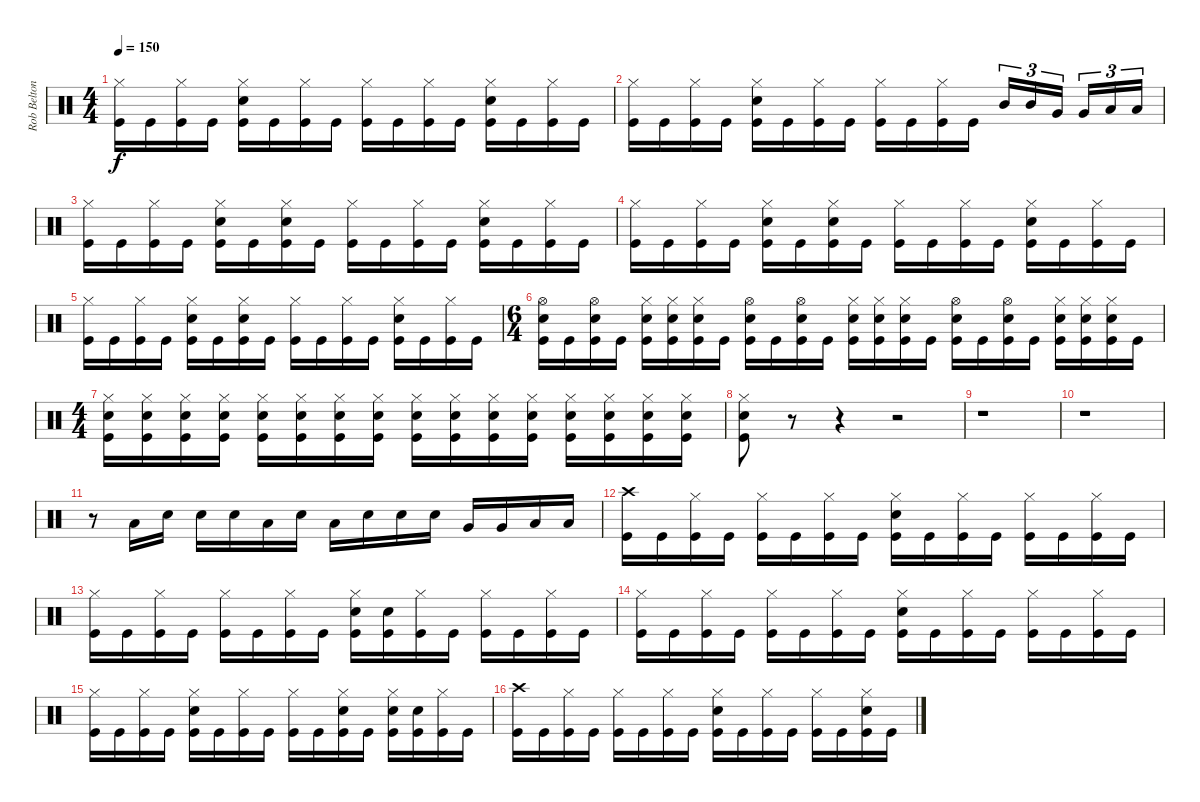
\track ("Rob Belton" "Rob Belton") {instrument percussion}
\staff {score}
\articulation defaults
\ts (4 4)
\tempo 150
\clef neutral
\ks c
("Hi-Hat (closed)" "Kick (hit)").16{dy f} "Kick (hit)".16 ("Hi-Hat (closed)" "Kick (hit)").16 "Kick (hit)".16 ("Hi-Hat (closed)" "Snare (hit) 2" "Kick (hit)").16 "Kick (hit)".16 ("Hi-Hat (closed)" "Kick (hit)").16 "Kick (hit)".16 ("Hi-Hat (closed)" "Kick (hit)").16 "Kick (hit)".16 ("Hi-Hat (closed)" "Kick (hit)").16 "Kick (hit)".16 ("Hi-Hat (closed)" "Snare (hit) 2" "Kick (hit)").16 "Kick (hit)".16 ("Hi-Hat (closed)" "Kick (hit)").16 "Kick (hit)".16 |
("Hi-Hat (closed)" "Kick (hit)").16 "Kick (hit)".16 ("Hi-Hat (closed)" "Kick (hit)").16 "Kick (hit)".16 ("Hi-Hat (closed)" "Snare (hit) 2" "Kick (hit)").16 "Kick (hit)".16 ("Hi-Hat (closed)" "Kick (hit)").16 "Kick (hit)".16 ("Hi-Hat (closed)" "Kick (hit)").16 "Kick (hit)".16 ("Hi-Hat (closed)" "Kick (hit)").16 "Kick (hit)".16 "Mid Tom (hit)".16{tu (3 2)} "Mid Tom (hit)".16{tu (3 2)} "Very Low Tom (hit)".16{tu (3 2) beam splitsecondary} "Very Low Tom (hit)".16{tu (3 2)} "Low Floor Tom (hit)".16{tu (3 2)} "Low Floor Tom (hit)".16{tu (3 2)} |
("Hi-Hat (closed)" "Kick (hit)").16 "Kick (hit)".16 ("Hi-Hat (closed)" "Kick (hit)").16 "Kick (hit)".16 ("Hi-Hat (closed)" "Snare (hit) 2" "Kick (hit)").16 "Kick (hit)".16 ("Hi-Hat (closed)" "Snare (hit) 2" "Kick (hit)").16 "Kick (hit)".16 ("Hi-Hat (closed)" "Kick (hit)").16 "Kick (hit)".16 ("Hi-Hat (closed)" "Kick (hit)").16 "Kick (hit)".16 ("Hi-Hat (closed)" "Snare (hit) 2" "Kick (hit)").16 "Kick (hit)".16 ("Hi-Hat (closed)" "Kick (hit)").16 "Kick (hit)".16 |
("Hi-Hat (closed)" "Kick (hit)").16 "Kick (hit)".16 ("Hi-Hat (closed)" "Kick (hit)").16 "Kick (hit)".16 ("Hi-Hat (closed)" "Snare (hit) 2" "Kick (hit)").16 "Kick (hit)".16 ("Hi-Hat (closed)" "Snare (hit) 2" "Kick (hit)").16 "Kick (hit)".16 ("Hi-Hat (closed)" "Kick (hit)").16 "Kick (hit)".16 ("Hi-Hat (closed)" "Kick (hit)").16 "Kick (hit)".16 ("Hi-Hat (closed)" "Snare (hit) 2" "Kick (hit)").16 "Kick (hit)".16 ("Hi-Hat (closed)" "Kick (hit)").16 "Kick (hit)".16 |
("Hi-Hat (closed)" "Kick (hit)").16 "Kick (hit)".16 ("Hi-Hat (closed)" "Kick (hit)").16 "Kick (hit)".16 ("Hi-Hat (closed)" "Snare (hit) 2" "Kick (hit)").16 "Kick (hit)".16 ("Hi-Hat (closed)" "Snare (hit) 2" "Kick (hit)").16 "Kick (hit)".16 ("Hi-Hat (closed)" "Kick (hit)").16 "Kick (hit)".16 ("Hi-Hat (closed)" "Kick (hit)").16 "Kick (hit)".16 ("Hi-Hat (closed)" "Snare (hit) 2" "Kick (hit)").16 "Kick (hit)".16 ("Hi-Hat (closed)" "Kick (hit)").16 "Kick (hit)".16 |
\ts (6 4)
("Hi-Hat (open)" "Snare (hit) 2" "Kick (hit)").16 "Kick (hit)".16 ("Hi-Hat (open)" "Snare (hit) 2" "Kick (hit)").16 "Kick (hit)".16 ("Hi-Hat (closed)" "Snare (hit) 2" "Kick (hit)").16 ("Hi-Hat (closed)" "Snare (hit) 2" "Kick (hit)").16 ("Hi-Hat (closed)" "Snare (hit) 2" "Kick (hit)").16 "Kick (hit)".16 ("Hi-Hat (open)" "Snare (hit) 2" "Kick (hit)").16 "Kick (hit)".16 ("Hi-Hat (open)" "Snare (hit) 2" "Kick (hit)").16 "Kick (hit)".16 ("Hi-Hat (closed)" "Snare (hit) 2" "Kick (hit)").16 ("Hi-Hat (closed)" "Snare (hit) 2" "Kick (hit)").16 ("Hi-Hat (closed)" "Snare (hit) 2" "Kick (hit)").16 "Kick (hit)".16 ("Hi-Hat (open)" "Snare (hit) 2" "Kick (hit)").16 "Kick (hit)".16 ("Hi-Hat (open)" "Snare (hit) 2" "Kick (hit)").16 "Kick (hit)".16 ("Hi-Hat (closed)" "Snare (hit) 2" "Kick (hit)").16 ("Hi-Hat (closed)" "Snare (hit) 2" "Kick (hit)").16 ("Hi-Hat (closed)" "Snare (hit) 2" "Kick (hit)").16 "Kick (hit)".16 |
\ts (4 4)
("Hi-Hat (closed)" "Snare (hit) 2" "Kick (hit)").16 ("Hi-Hat (closed)" "Snare (hit) 2" "Kick (hit)").16 ("Hi-Hat (closed)" "Snare (hit) 2" "Kick (hit)").16 ("Hi-Hat (closed)" "Snare (hit) 2" "Kick (hit)").16 ("Hi-Hat (closed)" "Snare (hit) 2" "Kick (hit)").16 ("Hi-Hat (closed)" "Snare (hit) 2" "Kick (hit)").16 ("Hi-Hat (closed)" "Snare (hit) 2" "Kick (hit)").16 ("Hi-Hat (closed)" "Snare (hit) 2" "Kick (hit)").16 ("Hi-Hat (closed)" "Snare (hit) 2" "Kick (hit)").16 ("Hi-Hat (closed)" "Snare (hit) 2" "Kick (hit)").16 ("Hi-Hat (closed)" "Snare (hit) 2" "Kick (hit)").16 ("Hi-Hat (closed)" "Snare (hit) 2" "Kick (hit)").16 ("Hi-Hat (closed)" "Snare (hit) 2" "Kick (hit)").16 ("Hi-Hat (closed)" "Snare (hit) 2" "Kick (hit)").16 ("Hi-Hat (closed)" "Snare (hit) 2" "Kick (hit)").16 ("Hi-Hat (closed)" "Snare (hit) 2" "Kick (hit)").16 |
("Hi-Hat (closed)" "Snare (hit) 2" "Kick (hit)").8 r.8 r.4 r.2 |
r.1 |
r.1 |
r.8 "Low Tom (hit)".16 "Snare (hit) 2".16 "Snare (hit) 2".16 "Snare (hit) 2".16 "Low Tom (hit)".16 "Snare (hit) 2".16 "Low Tom (hit)".16 "Snare (hit) 2".16 "Snare (hit) 2".16 "Snare (hit) 2".16 "Very Low Tom (hit)".16 "Very Low Tom (hit)".16 "Low Floor Tom (hit)".16 "Low Floor Tom (hit)".16 |
("Crash high (hit)" "Kick (hit)").16 "Kick (hit)".16 ("Hi-Hat (closed)" "Kick (hit)").16 "Kick (hit)".16 ("Hi-Hat (closed)" "Kick (hit)").16 "Kick (hit)".16 ("Hi-Hat (closed)" "Kick (hit)").16 "Kick (hit)".16 ("Hi-Hat (closed)" "Snare (hit) 2" "Kick (hit)").16 "Kick (hit)".16 ("Hi-Hat (closed)" "Kick (hit)").16 "Kick (hit)".16 ("Hi-Hat (closed)" "Kick (hit)").16 "Kick (hit)".16 ("Hi-Hat (closed)" "Kick (hit)").16 "Kick (hit)".16 |
("Hi-Hat (closed)" "Kick (hit)").16 "Kick (hit)".16 ("Hi-Hat (closed)" "Kick (hit)").16 "Kick (hit)".16 ("Hi-Hat (closed)" "Kick (hit)").16 "Kick (hit)".16 ("Hi-Hat (closed)" "Kick (hit)").16 "Kick (hit)".16 ("Hi-Hat (closed)" "Snare (hit) 2" "Kick (hit)").16 ("Snare (hit) 2" "Kick (hit)").16 ("Hi-Hat (closed)" "Kick (hit)").16 "Kick (hit)".16 ("Hi-Hat (closed)" "Kick (hit)").16 "Kick (hit)".16 ("Hi-Hat (closed)" "Kick (hit)").16 "Kick (hit)".16 |
("Hi-Hat (closed)" "Kick (hit)").16 "Kick (hit)".16 ("Hi-Hat (closed)" "Kick (hit)").16 "Kick (hit)".16 ("Hi-Hat (closed)" "Kick (hit)").16 "Kick (hit)".16 ("Hi-Hat (closed)" "Kick (hit)").16 "Kick (hit)".16 ("Hi-Hat (closed)" "Snare (hit) 2" "Kick (hit)").16 "Kick (hit)".16 ("Hi-Hat (closed)" "Kick (hit)").16 "Kick (hit)".16 ("Hi-Hat (closed)" "Kick (hit)").16 "Kick (hit)".16 ("Hi-Hat (closed)" "Kick (hit)").16 "Kick (hit)".16 |
("Hi-Hat (closed)" "Kick (hit)").16 "Kick (hit)".16 ("Hi-Hat (closed)" "Kick (hit)").16 "Kick (hit)".16 ("Hi-Hat (closed)" "Snare (hit) 2" "Kick (hit)").16 "Kick (hit)".16 ("Hi-Hat (closed)" "Kick (hit)").16 "Kick (hit)".16 ("Hi-Hat (closed)" "Kick (hit)").16 "Kick (hit)".16 ("Hi-Hat (closed)" "Snare (hit) 2" "Kick (hit)").16 "Kick (hit)".16 ("Hi-Hat (closed)" "Snare (hit) 2" "Kick (hit)").16 ("Snare (hit) 2" "Kick (hit)").16 ("Hi-Hat (closed)" "Kick (hit)").16 "Kick (hit)".16 |
("Crash high (hit)" "Kick (hit)").16 "Kick (hit)".16 ("Hi-Hat (closed)" "Kick (hit)").16 "Kick (hit)".16 ("Hi-Hat (closed)" "Kick (hit)").16 "Kick (hit)".16 ("Hi-Hat (closed)" "Kick (hit)").16 "Kick (hit)".16 ("Hi-Hat (closed)" "Snare (hit) 2" "Kick (hit)").16 "Kick (hit)".16 ("Hi-Hat (closed)" "Kick (hit)").16 "Kick (hit)".16 ("Hi-Hat (closed)" "Kick (hit)").16 "Kick (hit)".16 ("Hi-Hat (closed)" "Snare (hit) 2" "Kick (hit)").16 "Kick (hit)".16
